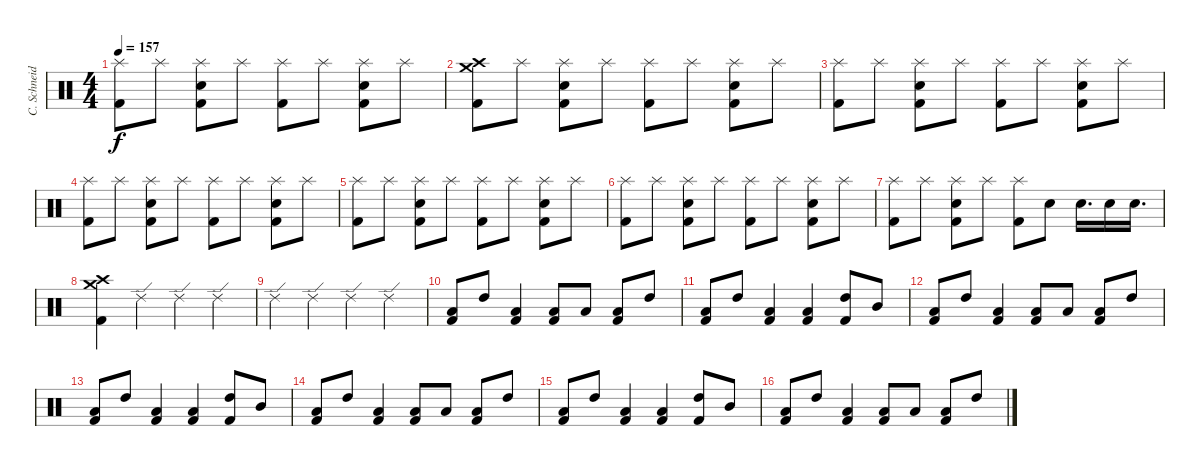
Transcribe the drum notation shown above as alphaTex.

\track ("C. Schneider" "C. Schneid") {instrument percussion}
\staff {score}
\articulation defaults
\ts (4 4)
\tempo 157
\clef neutral
\ks c
("Kick (hit) 2" "Splash (hit)").8{dy f} "Splash (hit)".8 ("Kick (hit) 2" "Electric Snare (hit)" "Splash (hit)").8 "Splash (hit)".8 ("Kick (hit) 2" "Splash (hit)").8 "Splash (hit)".8 ("Kick (hit) 2" "Electric Snare (hit)" "Splash (hit)").8 "Splash (hit)".8 |
("Kick (hit) 2" "Crash high (hit)" "Crash medium (hit)").8 "Splash (hit)".8 ("Kick (hit) 2" "Electric Snare (hit)" "Splash (hit)").8 "Splash (hit)".8 ("Kick (hit) 2" "Splash (hit)").8 "Splash (hit)".8 ("Kick (hit) 2" "Electric Snare (hit)" "Splash (hit)").8 "Splash (hit)".8 |
("Kick (hit) 2" "Splash (hit)").8 "Splash (hit)".8 ("Kick (hit) 2" "Electric Snare (hit)" "Splash (hit)").8 "Splash (hit)".8 ("Kick (hit) 2" "Splash (hit)").8 "Splash (hit)".8 ("Kick (hit) 2" "Electric Snare (hit)" "Splash (hit)").8 "Splash (hit)".8 |
("Kick (hit) 2" "Splash (hit)").8 "Splash (hit)".8 ("Kick (hit) 2" "Electric Snare (hit)" "Splash (hit)").8 "Splash (hit)".8 ("Kick (hit) 2" "Splash (hit)").8 "Splash (hit)".8 ("Kick (hit) 2" "Electric Snare (hit)" "Splash (hit)").8 "Splash (hit)".8 |
("Kick (hit) 2" "Splash (hit)").8 "Splash (hit)".8 ("Kick (hit) 2" "Electric Snare (hit)" "Splash (hit)").8 "Splash (hit)".8 ("Kick (hit) 2" "Splash (hit)").8 "Splash (hit)".8 ("Kick (hit) 2" "Electric Snare (hit)" "Splash (hit)").8 "Splash (hit)".8 |
("Kick (hit) 2" "Splash (hit)").8 "Splash (hit)".8 ("Kick (hit) 2" "Electric Snare (hit)" "Splash (hit)").8 "Splash (hit)".8 ("Kick (hit) 2" "Splash (hit)").8 "Splash (hit)".8 ("Kick (hit) 2" "Electric Snare (hit)" "Splash (hit)").8 "Splash (hit)".8 |
("Kick (hit) 2" "Splash (hit)").8 "Splash (hit)".8 ("Kick (hit) 2" "Electric Snare (hit)" "Splash (hit)").8 "Splash (hit)".8 ("Kick (hit) 2" "Splash (hit)").8 "Electric Snare (hit)".8 "Electric Snare (hit)".16{d} "Electric Snare (hit)".16 "Electric Snare (hit)".16{d} |
("Kick (hit) 2" "Crash high (hit)" "Crash medium (hit)").4 "Ride (edge) 2".4 "Ride (edge) 2".4 "Ride (edge) 2".4 |
"Ride (edge) 2".4 "Ride (edge) 2".4 "Ride (edge) 2".4 "Ride (edge) 2".4 |
("Kick (hit) 2" "Low Tom (hit)").8 "High Tom (hit)".8 ("Kick (hit) 2" "Low Tom (hit)").4 ("Kick (hit) 2" "Low Tom (hit)").8 "Low Tom (hit)".8 ("Kick (hit) 2" "Low Tom (hit)").8 "High Tom (hit)".8 |
("Kick (hit) 2" "Low Tom (hit)").8 "High Tom (hit)".8 ("Kick (hit) 2" "Low Tom (hit)").4 ("Kick (hit) 2" "Low Tom (hit)").4 ("Kick (hit) 2" "High Tom (hit)").8 "Mid Tom (hit)".8 |
("Kick (hit) 2" "Low Tom (hit)").8 "High Tom (hit)".8 ("Kick (hit) 2" "Low Tom (hit)").4 ("Kick (hit) 2" "Low Tom (hit)").8 "Low Tom (hit)".8 ("Kick (hit) 2" "Low Tom (hit)").8 "High Tom (hit)".8 |
("Kick (hit) 2" "Low Tom (hit)").8 "High Tom (hit)".8 ("Kick (hit) 2" "Low Tom (hit)").4 ("Kick (hit) 2" "Low Tom (hit)").4 ("Kick (hit) 2" "High Tom (hit)").8 "Mid Tom (hit)".8 |
("Kick (hit) 2" "Low Tom (hit)").8 "High Tom (hit)".8 ("Kick (hit) 2" "Low Tom (hit)").4 ("Kick (hit) 2" "Low Tom (hit)").8 "Low Tom (hit)".8 ("Kick (hit) 2" "Low Tom (hit)").8 "High Tom (hit)".8 |
("Kick (hit) 2" "Low Tom (hit)").8 "High Tom (hit)".8 ("Kick (hit) 2" "Low Tom (hit)").4 ("Kick (hit) 2" "Low Tom (hit)").4 ("Kick (hit) 2" "High Tom (hit)").8 "Mid Tom (hit)".8 |
("Kick (hit) 2" "Low Tom (hit)").8 "High Tom (hit)".8 ("Kick (hit) 2" "Low Tom (hit)").4 ("Kick (hit) 2" "Low Tom (hit)").8 "Low Tom (hit)".8 ("Kick (hit) 2" "Low Tom (hit)").8 "High Tom (hit)".8
